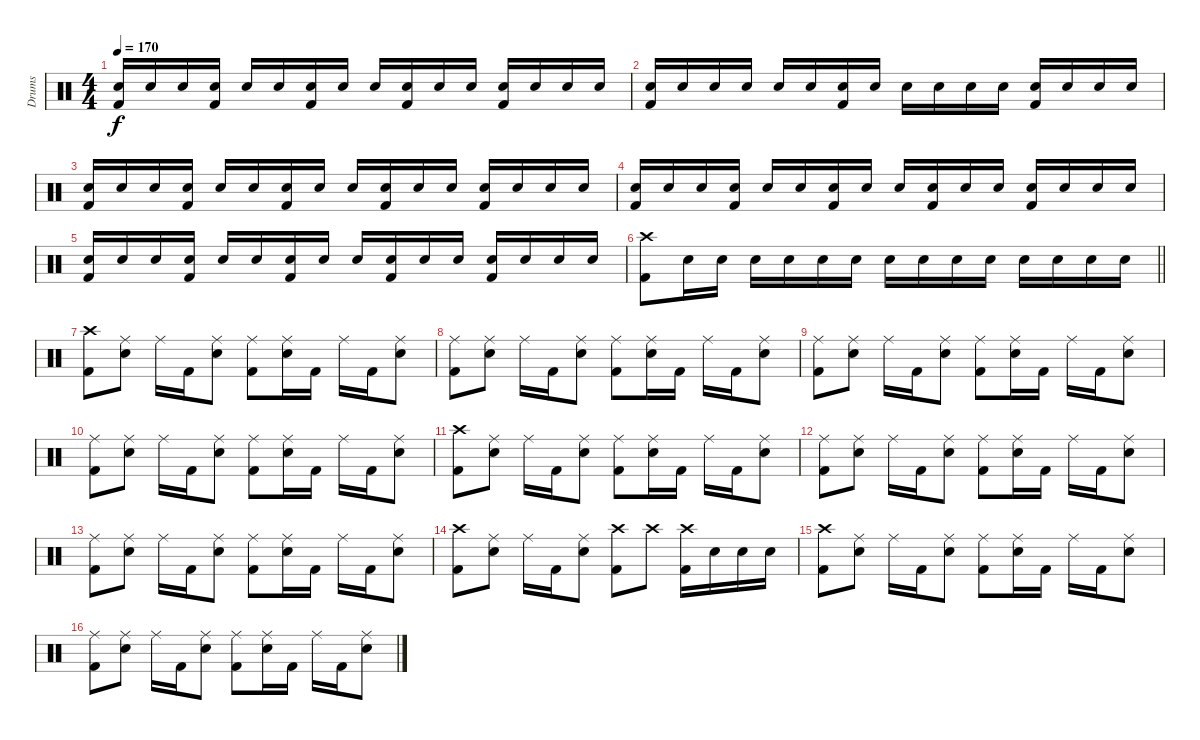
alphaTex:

\track ("Drums" "Drums") {instrument percussion}
\staff {score}
\articulation defaults
\ts (4 4)
\tempo 170
\clef neutral
\ks c
("Snare (hit) 2" "Kick (hit) 2").16{dy f} "Snare (hit) 2".16 "Snare (hit) 2".16 ("Snare (hit) 2" "Kick (hit) 2").16 "Snare (hit) 2".16 "Snare (hit) 2".16 ("Snare (hit) 2" "Kick (hit) 2").16 "Snare (hit) 2".16 "Snare (hit) 2".16 ("Snare (hit) 2" "Kick (hit) 2").16 "Snare (hit) 2".16 "Snare (hit) 2".16 ("Snare (hit) 2" "Kick (hit) 2").16 "Snare (hit) 2".16 "Snare (hit) 2".16 "Snare (hit) 2".16 |
("Snare (hit) 2" "Kick (hit) 2").16 "Snare (hit) 2".16 "Snare (hit) 2".16 "Snare (hit) 2".16 "Snare (hit) 2".16 "Snare (hit) 2".16 ("Snare (hit) 2" "Kick (hit) 2").16 "Snare (hit) 2".16 "Snare (hit) 2".16 "Snare (hit) 2".16 "Snare (hit) 2".16 "Snare (hit) 2".16 ("Snare (hit) 2" "Kick (hit) 2").16 "Snare (hit) 2".16 "Snare (hit) 2".16 "Snare (hit) 2".16 |
("Snare (hit) 2" "Kick (hit) 2").16 "Snare (hit) 2".16 "Snare (hit) 2".16 ("Snare (hit) 2" "Kick (hit) 2").16 "Snare (hit) 2".16 "Snare (hit) 2".16 ("Snare (hit) 2" "Kick (hit) 2").16 "Snare (hit) 2".16 "Snare (hit) 2".16 ("Snare (hit) 2" "Kick (hit) 2").16 "Snare (hit) 2".16 "Snare (hit) 2".16 ("Snare (hit) 2" "Kick (hit) 2").16 "Snare (hit) 2".16 "Snare (hit) 2".16 "Snare (hit) 2".16 |
("Snare (hit) 2" "Kick (hit) 2").16 "Snare (hit) 2".16 "Snare (hit) 2".16 ("Snare (hit) 2" "Kick (hit) 2").16 "Snare (hit) 2".16 "Snare (hit) 2".16 ("Snare (hit) 2" "Kick (hit) 2").16 "Snare (hit) 2".16 "Snare (hit) 2".16 ("Snare (hit) 2" "Kick (hit) 2").16 "Snare (hit) 2".16 "Snare (hit) 2".16 ("Snare (hit) 2" "Kick (hit) 2").16 "Snare (hit) 2".16 "Snare (hit) 2".16 "Snare (hit) 2".16 |
("Snare (hit) 2" "Kick (hit) 2").16 "Snare (hit) 2".16 "Snare (hit) 2".16 ("Snare (hit) 2" "Kick (hit) 2").16 "Snare (hit) 2".16 "Snare (hit) 2".16 ("Snare (hit) 2" "Kick (hit) 2").16 "Snare (hit) 2".16 "Snare (hit) 2".16 ("Snare (hit) 2" "Kick (hit) 2").16 "Snare (hit) 2".16 "Snare (hit) 2".16 ("Snare (hit) 2" "Kick (hit) 2").16 "Snare (hit) 2".16 "Snare (hit) 2".16 "Snare (hit) 2".16 |
\barLineRight lightlight
("Crash high (hit)" "Kick (hit) 2").8 "Snare (hit) 2".16 "Snare (hit) 2".16 "Snare (hit) 2".16 "Snare (hit) 2".16 "Snare (hit) 2".16 "Snare (hit) 2".16 "Snare (hit) 2".16 "Snare (hit) 2".16 "Snare (hit) 2".16 "Snare (hit) 2".16 "Snare (hit) 2".16 "Snare (hit) 2".16 "Snare (hit) 2".16 "Snare (hit) 2".16 |
("Crash high (hit)" "Kick (hit) 2").8 ("Ride (middle)" "Snare (hit) 2").8 "Ride (middle)".16 "Kick (hit) 2".16 ("Ride (middle)" "Snare (hit) 2").8 ("Ride (middle)" "Kick (hit) 2").8 ("Ride (middle)" "Snare (hit) 2").16 "Kick (hit) 2".16 "Ride (middle)".16 "Kick (hit) 2".16 ("Ride (middle)" "Snare (hit) 2").8 |
("Ride (middle)" "Kick (hit) 2").8 ("Ride (middle)" "Snare (hit) 2").8 "Ride (middle)".16 "Kick (hit) 2".16 ("Ride (middle)" "Snare (hit) 2").8 ("Ride (middle)" "Kick (hit) 2").8 ("Ride (middle)" "Snare (hit) 2").16 "Kick (hit) 2".16 "Ride (middle)".16 "Kick (hit) 2".16 ("Ride (middle)" "Snare (hit) 2").8 |
("Ride (middle)" "Kick (hit) 2").8 ("Ride (middle)" "Snare (hit) 2").8 "Ride (middle)".16 "Kick (hit) 2".16 ("Ride (middle)" "Snare (hit) 2").8 ("Ride (middle)" "Kick (hit) 2").8 ("Ride (middle)" "Snare (hit) 2").16 "Kick (hit) 2".16 "Ride (middle)".16 "Kick (hit) 2".16 ("Ride (middle)" "Snare (hit) 2").8 |
("Ride (middle)" "Kick (hit) 2").8 ("Ride (middle)" "Snare (hit) 2").8 "Ride (middle)".16 "Kick (hit) 2".16 ("Ride (middle)" "Snare (hit) 2").8 ("Ride (middle)" "Kick (hit) 2").8 ("Ride (middle)" "Snare (hit) 2").16 "Kick (hit) 2".16 "Ride (middle)".16 "Kick (hit) 2".16 ("Ride (middle)" "Snare (hit) 2").8 |
("Crash high (hit)" "Kick (hit) 2").8 ("Ride (middle)" "Snare (hit) 2").8 "Ride (middle)".16 "Kick (hit) 2".16 ("Ride (middle)" "Snare (hit) 2").8 ("Ride (middle)" "Kick (hit) 2").8 ("Ride (middle)" "Snare (hit) 2").16 "Kick (hit) 2".16 "Ride (middle)".16 "Kick (hit) 2".16 ("Ride (middle)" "Snare (hit) 2").8 |
("Ride (middle)" "Kick (hit) 2").8 ("Ride (middle)" "Snare (hit) 2").8 "Ride (middle)".16 "Kick (hit) 2".16 ("Ride (middle)" "Snare (hit) 2").8 ("Ride (middle)" "Kick (hit) 2").8 ("Ride (middle)" "Snare (hit) 2").16 "Kick (hit) 2".16 "Ride (middle)".16 "Kick (hit) 2".16 ("Ride (middle)" "Snare (hit) 2").8 |
("Ride (middle)" "Kick (hit) 2").8 ("Ride (middle)" "Snare (hit) 2").8 "Ride (middle)".16 "Kick (hit) 2".16 ("Ride (middle)" "Snare (hit) 2").8 ("Ride (middle)" "Kick (hit) 2").8 ("Ride (middle)" "Snare (hit) 2").16 "Kick (hit) 2".16 "Ride (middle)".16 "Kick (hit) 2".16 ("Ride (middle)" "Snare (hit) 2").8 |
("Crash high (hit)" "Kick (hit) 2").8 ("Ride (middle)" "Snare (hit) 2").8 "Ride (middle)".16 "Kick (hit) 2".16 ("Ride (middle)" "Snare (hit) 2").8 ("Crash high (hit)" "Kick (hit) 2").8 "Crash high (hit)".8 ("Crash high (hit)" "Kick (hit) 2").16 "Snare (hit) 2".16 "Snare (hit) 2".16 "Snare (hit) 2".16 |
("Crash high (hit)" "Kick (hit) 2").8 ("Ride (middle)" "Snare (hit) 2").8 "Ride (middle)".16 "Kick (hit) 2".16 ("Ride (middle)" "Snare (hit) 2").8 ("Ride (middle)" "Kick (hit) 2").8 ("Ride (middle)" "Snare (hit) 2").16 "Kick (hit) 2".16 "Ride (middle)".16 "Kick (hit) 2".16 ("Ride (middle)" "Snare (hit) 2").8 |
("Ride (middle)" "Kick (hit) 2").8 ("Ride (middle)" "Snare (hit) 2").8 "Ride (middle)".16 "Kick (hit) 2".16 ("Ride (middle)" "Snare (hit) 2").8 ("Ride (middle)" "Kick (hit) 2").8 ("Ride (middle)" "Snare (hit) 2").16 "Kick (hit) 2".16 "Ride (middle)".16 "Kick (hit) 2".16 ("Ride (middle)" "Snare (hit) 2").8
